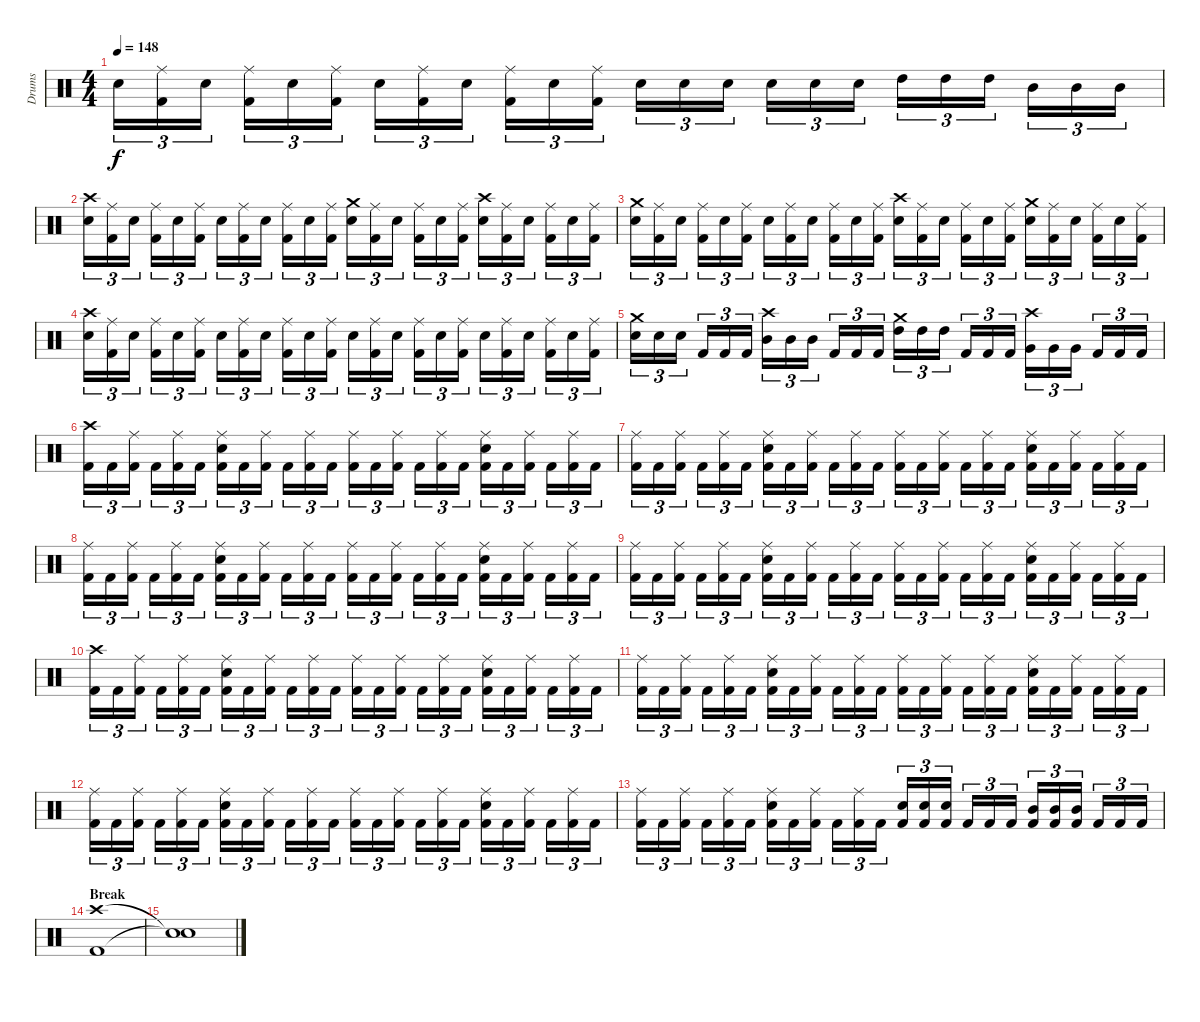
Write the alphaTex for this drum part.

\track ("Drums" "Drums") {instrument percussion}
\staff {score}
\articulation defaults
\ts (4 4)
\tempo 148
\clef neutral
\ks c "Snare (hit) 2".16{tu (3 2) dy f}
("Ride (middle)" "Kick (hit) 2").16{tu (3 2)} "Snare (hit) 2".16{tu (3 2)} ("Ride (middle)" "Kick (hit) 2").16{tu (3 2)} "Snare (hit) 2".16{tu (3 2)} ("Ride (middle)" "Kick (hit) 2").16{tu (3 2)} "Snare (hit) 2".16{tu (3 2)} ("Ride (middle)" "Kick (hit) 2").16{tu (3 2)} "Snare (hit) 2".16{tu (3 2)} ("Ride (middle)" "Kick (hit) 2").16{tu (3 2)} "Snare (hit) 2".16{tu (3 2)} ("Ride (middle)" "Kick (hit) 2").16{tu (3 2)} "Snare (hit) 2".16{tu (3 2)} "Snare (hit) 2".16{tu (3 2)} "Snare (hit) 2".16{tu (3 2)} "Snare (hit) 2".16{tu (3 2)} "Snare (hit) 2".16{tu (3 2)} "Snare (hit) 2".16{tu (3 2)} "High Tom (hit)".16{tu (3 2)} "High Tom (hit)".16{tu (3 2)} "High Tom (hit)".16{tu (3 2)} "Mid Tom (hit)".16{tu (3 2)} "Mid Tom (hit)".16{tu (3 2)} "Mid Tom (hit)".16{tu (3 2)} |
("Crash high (hit)" "Snare (hit) 2").16{tu (3 2)} ("Ride (middle)" "Kick (hit) 2").16{tu (3 2)} "Snare (hit) 2".16{tu (3 2)} ("Ride (middle)" "Kick (hit) 2").16{tu (3 2)} "Snare (hit) 2".16{tu (3 2)} ("Ride (middle)" "Kick (hit) 2").16{tu (3 2)} "Snare (hit) 2".16{tu (3 2)} ("Ride (middle)" "Kick (hit) 2").16{tu (3 2)} "Snare (hit) 2".16{tu (3 2)} ("Ride (middle)" "Kick (hit) 2").16{tu (3 2)} "Snare (hit) 2".16{tu (3 2)} ("Ride (middle)" "Kick (hit) 2").16{tu (3 2)} ("Crash medium (hit)" "Snare (hit) 2").16{tu (3 2)} ("Ride (middle)" "Kick (hit) 2").16{tu (3 2)} "Snare (hit) 2".16{tu (3 2)} ("Ride (middle)" "Kick (hit) 2").16{tu (3 2)} "Snare (hit) 2".16{tu (3 2)} ("Ride (middle)" "Kick (hit) 2").16{tu (3 2)} ("Crash high (hit)" "Snare (hit) 2").16{tu (3 2)} ("Ride (middle)" "Kick (hit) 2").16{tu (3 2)} "Snare (hit) 2".16{tu (3 2)} ("Ride (middle)" "Kick (hit) 2").16{tu (3 2)} "Snare (hit) 2".16{tu (3 2)} ("Ride (middle)" "Kick (hit) 2").16{tu (3 2)} |
("Crash medium (hit)" "Snare (hit) 2").16{tu (3 2)} ("Ride (middle)" "Kick (hit) 2").16{tu (3 2)} "Snare (hit) 2".16{tu (3 2)} ("Ride (middle)" "Kick (hit) 2").16{tu (3 2)} "Snare (hit) 2".16{tu (3 2)} ("Ride (middle)" "Kick (hit) 2").16{tu (3 2)} "Snare (hit) 2".16{tu (3 2)} ("Ride (middle)" "Kick (hit) 2").16{tu (3 2)} "Snare (hit) 2".16{tu (3 2)} ("Ride (middle)" "Kick (hit) 2").16{tu (3 2)} "Snare (hit) 2".16{tu (3 2)} ("Ride (middle)" "Kick (hit) 2").16{tu (3 2)} ("Crash high (hit)" "Snare (hit) 2").16{tu (3 2)} ("Ride (middle)" "Kick (hit) 2").16{tu (3 2)} "Snare (hit) 2".16{tu (3 2)} ("Ride (middle)" "Kick (hit) 2").16{tu (3 2)} "Snare (hit) 2".16{tu (3 2)} ("Ride (middle)" "Kick (hit) 2").16{tu (3 2)} ("Crash medium (hit)" "Snare (hit) 2").16{tu (3 2)} ("Ride (middle)" "Kick (hit) 2").16{tu (3 2)} "Snare (hit) 2".16{tu (3 2)} ("Ride (middle)" "Kick (hit) 2").16{tu (3 2)} "Snare (hit) 2".16{tu (3 2)} ("Ride (middle)" "Kick (hit) 2").16{tu (3 2)} |
("Crash high (hit)" "Snare (hit) 2").16{tu (3 2)} ("Ride (middle)" "Kick (hit) 2").16{tu (3 2)} "Snare (hit) 2".16{tu (3 2)} ("Ride (middle)" "Kick (hit) 2").16{tu (3 2)} "Snare (hit) 2".16{tu (3 2)} ("Ride (middle)" "Kick (hit) 2").16{tu (3 2)} "Snare (hit) 2".16{tu (3 2)} ("Ride (middle)" "Kick (hit) 2").16{tu (3 2)} "Snare (hit) 2".16{tu (3 2)} ("Ride (middle)" "Kick (hit) 2").16{tu (3 2)} "Snare (hit) 2".16{tu (3 2)} ("Ride (middle)" "Kick (hit) 2").16{tu (3 2)} "Snare (hit) 2".16{tu (3 2)} ("Ride (middle)" "Kick (hit) 2").16{tu (3 2)} "Snare (hit) 2".16{tu (3 2)} ("Ride (middle)" "Kick (hit) 2").16{tu (3 2)} "Snare (hit) 2".16{tu (3 2)} ("Ride (middle)" "Kick (hit) 2").16{tu (3 2)} "Snare (hit) 2".16{tu (3 2)} ("Ride (middle)" "Kick (hit) 2").16{tu (3 2)} "Snare (hit) 2".16{tu (3 2)} ("Ride (middle)" "Kick (hit) 2").16{tu (3 2)} "Snare (hit) 2".16{tu (3 2)} ("Ride (middle)" "Kick (hit) 2").16{tu (3 2)} |
("Crash medium (hit)" "Snare (hit) 2").16{tu (3 2)} "Snare (hit) 2".16{tu (3 2)} "Snare (hit) 2".16{tu (3 2)} "Kick (hit) 2".16{tu (3 2)} "Kick (hit) 2".16{tu (3 2)} "Kick (hit) 2".16{tu (3 2)} ("Crash high (hit)" "Mid Tom (hit)").16{tu (3 2)} "Mid Tom (hit)".16{tu (3 2)} "Mid Tom (hit)".16{tu (3 2)} "Kick (hit) 2".16{tu (3 2)} "Kick (hit) 2".16{tu (3 2)} "Kick (hit) 2".16{tu (3 2)} ("Crash medium (hit)" "High Tom (hit)").16{tu (3 2)} "High Tom (hit)".16{tu (3 2)} "High Tom (hit)".16{tu (3 2)} "Kick (hit) 2".16{tu (3 2)} "Kick (hit) 2".16{tu (3 2)} "Kick (hit) 2".16{tu (3 2)} ("Crash high (hit)" "Very Low Tom (hit)").16{tu (3 2)} "Very Low Tom (hit)".16{tu (3 2)} "Very Low Tom (hit)".16{tu (3 2)} "Kick (hit) 2".16{tu (3 2)} "Kick (hit) 2".16{tu (3 2)} "Kick (hit) 2".16{tu (3 2)} |
("Crash high (hit)" "Kick (hit) 2").16{tu (3 2)} "Kick (hit) 2".16{tu (3 2)} ("Ride (middle)" "Kick (hit) 2").16{tu (3 2)} "Kick (hit) 2".16{tu (3 2)} ("Ride (middle)" "Kick (hit) 2").16{tu (3 2)} "Kick (hit) 2".16{tu (3 2)} ("Ride (middle)" "Snare (hit) 2" "Kick (hit) 2").16{tu (3 2)} "Kick (hit) 2".16{tu (3 2)} ("Ride (middle)" "Kick (hit) 2").16{tu (3 2)} "Kick (hit) 2".16{tu (3 2)} ("Ride (middle)" "Kick (hit) 2").16{tu (3 2)} "Kick (hit) 2".16{tu (3 2)} ("Ride (middle)" "Kick (hit) 2").16{tu (3 2)} "Kick (hit) 2".16{tu (3 2)} ("Ride (middle)" "Kick (hit) 2").16{tu (3 2)} "Kick (hit) 2".16{tu (3 2)} ("Ride (middle)" "Kick (hit) 2").16{tu (3 2)} "Kick (hit) 2".16{tu (3 2)} ("Ride (middle)" "Snare (hit) 2" "Kick (hit) 2").16{tu (3 2)} "Kick (hit) 2".16{tu (3 2)} ("Ride (middle)" "Kick (hit) 2").16{tu (3 2)} "Kick (hit) 2".16{tu (3 2)} ("Ride (middle)" "Kick (hit) 2").16{tu (3 2)} "Kick (hit) 2".16{tu (3 2)} |
("Ride (middle)" "Kick (hit) 2").16{tu (3 2)} "Kick (hit) 2".16{tu (3 2)} ("Ride (middle)" "Kick (hit) 2").16{tu (3 2)} "Kick (hit) 2".16{tu (3 2)} ("Ride (middle)" "Kick (hit) 2").16{tu (3 2)} "Kick (hit) 2".16{tu (3 2)} ("Ride (middle)" "Snare (hit) 2" "Kick (hit) 2").16{tu (3 2)} "Kick (hit) 2".16{tu (3 2)} ("Ride (middle)" "Kick (hit) 2").16{tu (3 2)} "Kick (hit) 2".16{tu (3 2)} ("Ride (middle)" "Kick (hit) 2").16{tu (3 2)} "Kick (hit) 2".16{tu (3 2)} ("Ride (middle)" "Kick (hit) 2").16{tu (3 2)} "Kick (hit) 2".16{tu (3 2)} ("Ride (middle)" "Kick (hit) 2").16{tu (3 2)} "Kick (hit) 2".16{tu (3 2)} ("Ride (middle)" "Kick (hit) 2").16{tu (3 2)} "Kick (hit) 2".16{tu (3 2)} ("Ride (middle)" "Snare (hit) 2" "Kick (hit) 2").16{tu (3 2)} "Kick (hit) 2".16{tu (3 2)} ("Ride (middle)" "Kick (hit) 2").16{tu (3 2)} "Kick (hit) 2".16{tu (3 2)} ("Ride (middle)" "Kick (hit) 2").16{tu (3 2)} "Kick (hit) 2".16{tu (3 2)} |
("Ride (middle)" "Kick (hit) 2").16{tu (3 2)} "Kick (hit) 2".16{tu (3 2)} ("Ride (middle)" "Kick (hit) 2").16{tu (3 2)} "Kick (hit) 2".16{tu (3 2)} ("Ride (middle)" "Kick (hit) 2").16{tu (3 2)} "Kick (hit) 2".16{tu (3 2)} ("Ride (middle)" "Snare (hit) 2" "Kick (hit) 2").16{tu (3 2)} "Kick (hit) 2".16{tu (3 2)} ("Ride (middle)" "Kick (hit) 2").16{tu (3 2)} "Kick (hit) 2".16{tu (3 2)} ("Ride (middle)" "Kick (hit) 2").16{tu (3 2)} "Kick (hit) 2".16{tu (3 2)} ("Ride (middle)" "Kick (hit) 2").16{tu (3 2)} "Kick (hit) 2".16{tu (3 2)} ("Ride (middle)" "Kick (hit) 2").16{tu (3 2)} "Kick (hit) 2".16{tu (3 2)} ("Ride (middle)" "Kick (hit) 2").16{tu (3 2)} "Kick (hit) 2".16{tu (3 2)} ("Ride (middle)" "Snare (hit) 2" "Kick (hit) 2").16{tu (3 2)} "Kick (hit) 2".16{tu (3 2)} ("Ride (middle)" "Kick (hit) 2").16{tu (3 2)} "Kick (hit) 2".16{tu (3 2)} ("Ride (middle)" "Kick (hit) 2").16{tu (3 2)} "Kick (hit) 2".16{tu (3 2)} |
("Ride (middle)" "Kick (hit) 2").16{tu (3 2)} "Kick (hit) 2".16{tu (3 2)} ("Ride (middle)" "Kick (hit) 2").16{tu (3 2)} "Kick (hit) 2".16{tu (3 2)} ("Ride (middle)" "Kick (hit) 2").16{tu (3 2)} "Kick (hit) 2".16{tu (3 2)} ("Ride (middle)" "Snare (hit) 2" "Kick (hit) 2").16{tu (3 2)} "Kick (hit) 2".16{tu (3 2)} ("Ride (middle)" "Kick (hit) 2").16{tu (3 2)} "Kick (hit) 2".16{tu (3 2)} ("Ride (middle)" "Kick (hit) 2").16{tu (3 2)} "Kick (hit) 2".16{tu (3 2)} ("Ride (middle)" "Kick (hit) 2").16{tu (3 2)} "Kick (hit) 2".16{tu (3 2)} ("Ride (middle)" "Kick (hit) 2").16{tu (3 2)} "Kick (hit) 2".16{tu (3 2)} ("Ride (middle)" "Kick (hit) 2").16{tu (3 2)} "Kick (hit) 2".16{tu (3 2)} ("Ride (middle)" "Snare (hit) 2" "Kick (hit) 2").16{tu (3 2)} "Kick (hit) 2".16{tu (3 2)} ("Ride (middle)" "Kick (hit) 2").16{tu (3 2)} "Kick (hit) 2".16{tu (3 2)} ("Ride (middle)" "Kick (hit) 2").16{tu (3 2)} "Kick (hit) 2".16{tu (3 2)} |
("Crash high (hit)" "Kick (hit) 2").16{tu (3 2)} "Kick (hit) 2".16{tu (3 2)} ("Ride (middle)" "Kick (hit) 2").16{tu (3 2)} "Kick (hit) 2".16{tu (3 2)} ("Ride (middle)" "Kick (hit) 2").16{tu (3 2)} "Kick (hit) 2".16{tu (3 2)} ("Ride (middle)" "Snare (hit) 2" "Kick (hit) 2").16{tu (3 2)} "Kick (hit) 2".16{tu (3 2)} ("Ride (middle)" "Kick (hit) 2").16{tu (3 2)} "Kick (hit) 2".16{tu (3 2)} ("Ride (middle)" "Kick (hit) 2").16{tu (3 2)} "Kick (hit) 2".16{tu (3 2)} ("Ride (middle)" "Kick (hit) 2").16{tu (3 2)} "Kick (hit) 2".16{tu (3 2)} ("Ride (middle)" "Kick (hit) 2").16{tu (3 2)} "Kick (hit) 2".16{tu (3 2)} ("Ride (middle)" "Kick (hit) 2").16{tu (3 2)} "Kick (hit) 2".16{tu (3 2)} ("Ride (middle)" "Snare (hit) 2" "Kick (hit) 2").16{tu (3 2)} "Kick (hit) 2".16{tu (3 2)} ("Ride (middle)" "Kick (hit) 2").16{tu (3 2)} "Kick (hit) 2".16{tu (3 2)} ("Ride (middle)" "Kick (hit) 2").16{tu (3 2)} "Kick (hit) 2".16{tu (3 2)} |
("Ride (middle)" "Kick (hit) 2").16{tu (3 2)} "Kick (hit) 2".16{tu (3 2)} ("Ride (middle)" "Kick (hit) 2").16{tu (3 2)} "Kick (hit) 2".16{tu (3 2)} ("Ride (middle)" "Kick (hit) 2").16{tu (3 2)} "Kick (hit) 2".16{tu (3 2)} ("Ride (middle)" "Snare (hit) 2" "Kick (hit) 2").16{tu (3 2)} "Kick (hit) 2".16{tu (3 2)} ("Ride (middle)" "Kick (hit) 2").16{tu (3 2)} "Kick (hit) 2".16{tu (3 2)} ("Ride (middle)" "Kick (hit) 2").16{tu (3 2)} "Kick (hit) 2".16{tu (3 2)} ("Ride (middle)" "Kick (hit) 2").16{tu (3 2)} "Kick (hit) 2".16{tu (3 2)} ("Ride (middle)" "Kick (hit) 2").16{tu (3 2)} "Kick (hit) 2".16{tu (3 2)} ("Ride (middle)" "Kick (hit) 2").16{tu (3 2)} "Kick (hit) 2".16{tu (3 2)} ("Ride (middle)" "Snare (hit) 2" "Kick (hit) 2").16{tu (3 2)} "Kick (hit) 2".16{tu (3 2)} ("Ride (middle)" "Kick (hit) 2").16{tu (3 2)} "Kick (hit) 2".16{tu (3 2)} ("Ride (middle)" "Kick (hit) 2").16{tu (3 2)} "Kick (hit) 2".16{tu (3 2)} |
("Ride (middle)" "Kick (hit) 2").16{tu (3 2)} "Kick (hit) 2".16{tu (3 2)} ("Ride (middle)" "Kick (hit) 2").16{tu (3 2)} "Kick (hit) 2".16{tu (3 2)} ("Ride (middle)" "Kick (hit) 2").16{tu (3 2)} "Kick (hit) 2".16{tu (3 2)} ("Ride (middle)" "Snare (hit) 2" "Kick (hit) 2").16{tu (3 2)} "Kick (hit) 2".16{tu (3 2)} ("Ride (middle)" "Kick (hit) 2").16{tu (3 2)} "Kick (hit) 2".16{tu (3 2)} ("Ride (middle)" "Kick (hit) 2").16{tu (3 2)} "Kick (hit) 2".16{tu (3 2)} ("Ride (middle)" "Kick (hit) 2").16{tu (3 2)} "Kick (hit) 2".16{tu (3 2)} ("Ride (middle)" "Kick (hit) 2").16{tu (3 2)} "Kick (hit) 2".16{tu (3 2)} ("Ride (middle)" "Kick (hit) 2").16{tu (3 2)} "Kick (hit) 2".16{tu (3 2)} ("Ride (middle)" "Snare (hit) 2" "Kick (hit) 2").16{tu (3 2)} "Kick (hit) 2".16{tu (3 2)} ("Ride (middle)" "Kick (hit) 2").16{tu (3 2)} "Kick (hit) 2".16{tu (3 2)} ("Ride (middle)" "Kick (hit) 2").16{tu (3 2)} "Kick (hit) 2".16{tu (3 2)} |
("Ride (middle)" "Kick (hit) 2").16{tu (3 2)} "Kick (hit) 2".16{tu (3 2)} ("Ride (middle)" "Kick (hit) 2").16{tu (3 2)} "Kick (hit) 2".16{tu (3 2)} ("Ride (middle)" "Kick (hit) 2").16{tu (3 2)} "Kick (hit) 2".16{tu (3 2)} ("Ride (middle)" "Snare (hit) 2" "Kick (hit) 2").16{tu (3 2)} "Kick (hit) 2".16{tu (3 2)} ("Ride (middle)" "Kick (hit) 2").16{tu (3 2)} "Kick (hit) 2".16{tu (3 2)} ("Ride (middle)" "Kick (hit) 2").16{tu (3 2)} "Kick (hit) 2".16{tu (3 2)} ("Snare (hit) 2" "Kick (hit) 2").16{tu (3 2)} ("Snare (hit) 2" "Kick (hit) 2").16{tu (3 2)} ("Snare (hit) 2" "Kick (hit) 2").16{tu (3 2)} "Kick (hit) 2".16{tu (3 2)} "Kick (hit) 2".16{tu (3 2)} "Kick (hit) 2".16{tu (3 2)} ("Mid Tom (hit)" "Kick (hit) 2").16{tu (3 2)} ("Mid Tom (hit)" "Kick (hit) 2").16{tu (3 2)} ("Mid Tom (hit)" "Kick (hit) 2").16{tu (3 2)} "Kick (hit) 2".16{tu (3 2)} "Kick (hit) 2".16{tu (3 2)} "Kick (hit) 2".16{tu (3 2)} |
\section ("" "Break")
("Crash high (hit)" "Kick (hit) 2").1 |
("Snare (hit)"{t} "Snare (hit)"{t}).1
